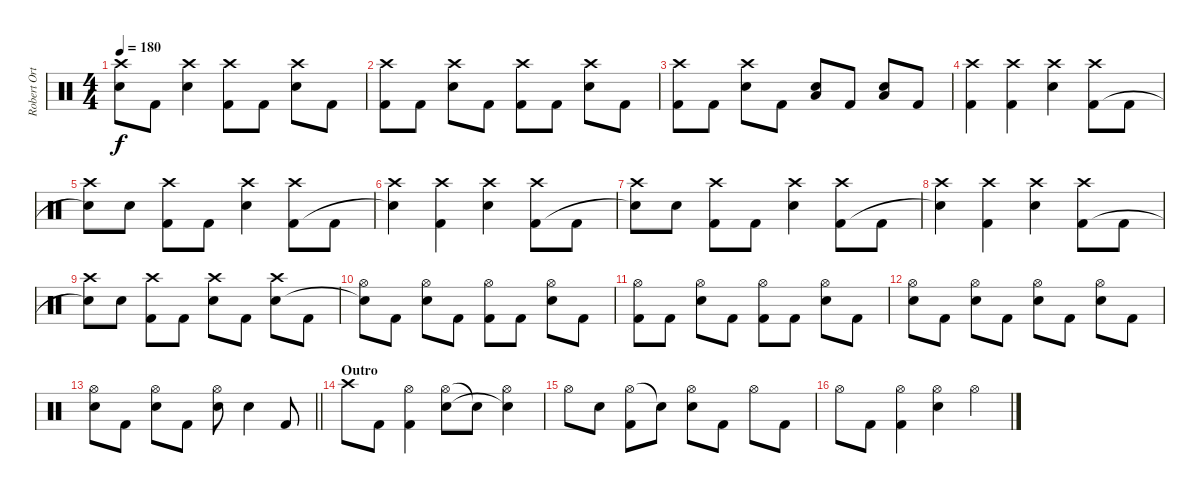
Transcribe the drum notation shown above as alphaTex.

\track ("Robert Ortiz [Drums]" "Robert Ort") {instrument percussion}
\staff {score}
\articulation defaults
\ts (4 4)
\tempo 180
\clef neutral
\ks c
("Crash high (hit)" "Snare (hit)"{t}).8{dy f} "Kick (hit) 2".8 ("Crash high (hit)" "Electric Snare (hit)").4 ("Crash high (hit)" "Kick (hit) 2").8 "Kick (hit) 2".8 ("Crash high (hit)" "Electric Snare (hit)").8 "Kick (hit) 2".8 |
("Crash high (hit)" "Kick (hit) 2").8 "Kick (hit) 2".8 ("Crash high (hit)" "Electric Snare (hit)").8 "Kick (hit) 2".8 ("Crash high (hit)" "Kick (hit) 2").8 "Kick (hit) 2".8 ("Crash high (hit)" "Electric Snare (hit)").8 "Kick (hit) 2".8 |
("Crash high (hit)" "Kick (hit) 2").8 "Kick (hit) 2".8 ("Crash high (hit)" "Electric Snare (hit)").8 "Kick (hit) 2".8 ("Electric Snare (hit)" "Low Floor Tom (hit)").8 "Kick (hit) 2".8 ("Electric Snare (hit)" "Low Floor Tom (hit)").8 "Kick (hit) 2".8 |
("Crash high (hit)" "Kick (hit) 2").4 ("Crash high (hit)" "Kick (hit) 2").4 ("Crash high (hit)" "Electric Snare (hit)").4 ("Crash high (hit)" "Kick (hit) 2").8 "Kick (hit) 2".8 |
("Crash high (hit)" "Snare (hit)"{t}).8 "Electric Snare (hit)".8 ("Crash high (hit)" "Kick (hit) 2").8 "Kick (hit) 2".8 ("Crash high (hit)" "Electric Snare (hit)").4 ("Crash high (hit)" "Kick (hit) 2").8 "Kick (hit) 2".8 |
("Crash high (hit)" "Snare (hit)"{t}).4 ("Crash high (hit)" "Kick (hit) 2").4 ("Crash high (hit)" "Electric Snare (hit)").4 ("Crash high (hit)" "Kick (hit) 2").8 "Kick (hit) 2".8 |
("Crash high (hit)" "Snare (hit)"{t}).8 "Electric Snare (hit)".8 ("Crash high (hit)" "Kick (hit) 2").8 "Kick (hit) 2".8 ("Crash high (hit)" "Electric Snare (hit)").4 ("Crash high (hit)" "Kick (hit) 2").8 "Kick (hit) 2".8 |
("Crash high (hit)" "Snare (hit)"{t}).4 ("Crash high (hit)" "Kick (hit) 2").4 ("Crash high (hit)" "Electric Snare (hit)").4 ("Crash high (hit)" "Kick (hit) 2").8 "Kick (hit) 2".8 |
("Crash high (hit)" "Snare (hit)"{t}).8 "Electric Snare (hit)".8 ("Crash high (hit)" "Kick (hit) 2").8 "Kick (hit) 2".8 ("Crash high (hit)" "Electric Snare (hit)").8 "Kick (hit) 2".8 ("Crash high (hit)" "Electric Snare (hit)").8 "Kick (hit) 2".8 |
("Hi-Hat (open)" "Snare (hit)"{t}).8 "Kick (hit) 2".8 ("Hi-Hat (open)" "Electric Snare (hit)").8 "Kick (hit) 2".8 ("Hi-Hat (open)" "Kick (hit) 2").8 "Kick (hit) 2".8 ("Hi-Hat (open)" "Electric Snare (hit)").8 "Kick (hit) 2".8 |
("Hi-Hat (open)" "Kick (hit) 2").8 "Kick (hit) 2".8 ("Hi-Hat (open)" "Electric Snare (hit)").8 "Kick (hit) 2".8 ("Hi-Hat (open)" "Kick (hit) 2").8 "Kick (hit) 2".8 ("Hi-Hat (open)" "Electric Snare (hit)").8 "Kick (hit) 2".8 |
("Hi-Hat (open)" "Electric Snare (hit)").8 "Kick (hit) 2".8 ("Hi-Hat (open)" "Electric Snare (hit)").8 "Kick (hit) 2".8 ("Hi-Hat (open)" "Electric Snare (hit)").8 "Kick (hit) 2".8 ("Hi-Hat (open)" "Electric Snare (hit)").8 "Kick (hit) 2".8 |
\barLineRight lightlight
("Hi-Hat (open)" "Electric Snare (hit)").8 "Kick (hit) 2".8 ("Hi-Hat (open)" "Electric Snare (hit)").8 "Kick (hit) 2".8 ("Hi-Hat (open)" "Electric Snare (hit)").8 "Electric Snare (hit)".4 "Kick (hit) 2".8 |
\section ("" "Outro")
"Crash high (hit)".8 "Kick (hit) 2".8 ("Hi-Hat (open)" "Kick (hit) 2").4 ("Hi-Hat (open)" "Electric Snare (hit)").8 "Snare (hit)"{t}.8 ("Hi-Hat (open)" "Snare (hit)"{t}).4 |
"Hi-Hat (open)".8 "Electric Snare (hit)".8 ("Hi-Hat (open)" "Kick (hit) 2").8 "Snare (hit)"{t}.8 ("Hi-Hat (open)" "Electric Snare (hit)").8 "Kick (hit) 2".8 "Hi-Hat (open)".8 "Kick (hit) 2".8 |
"Hi-Hat (open)".8 "Kick (hit) 2".8 ("Hi-Hat (open)" "Kick (hit) 2").4 ("Hi-Hat (open)" "Electric Snare (hit)").4 "Hi-Hat (open)".4
